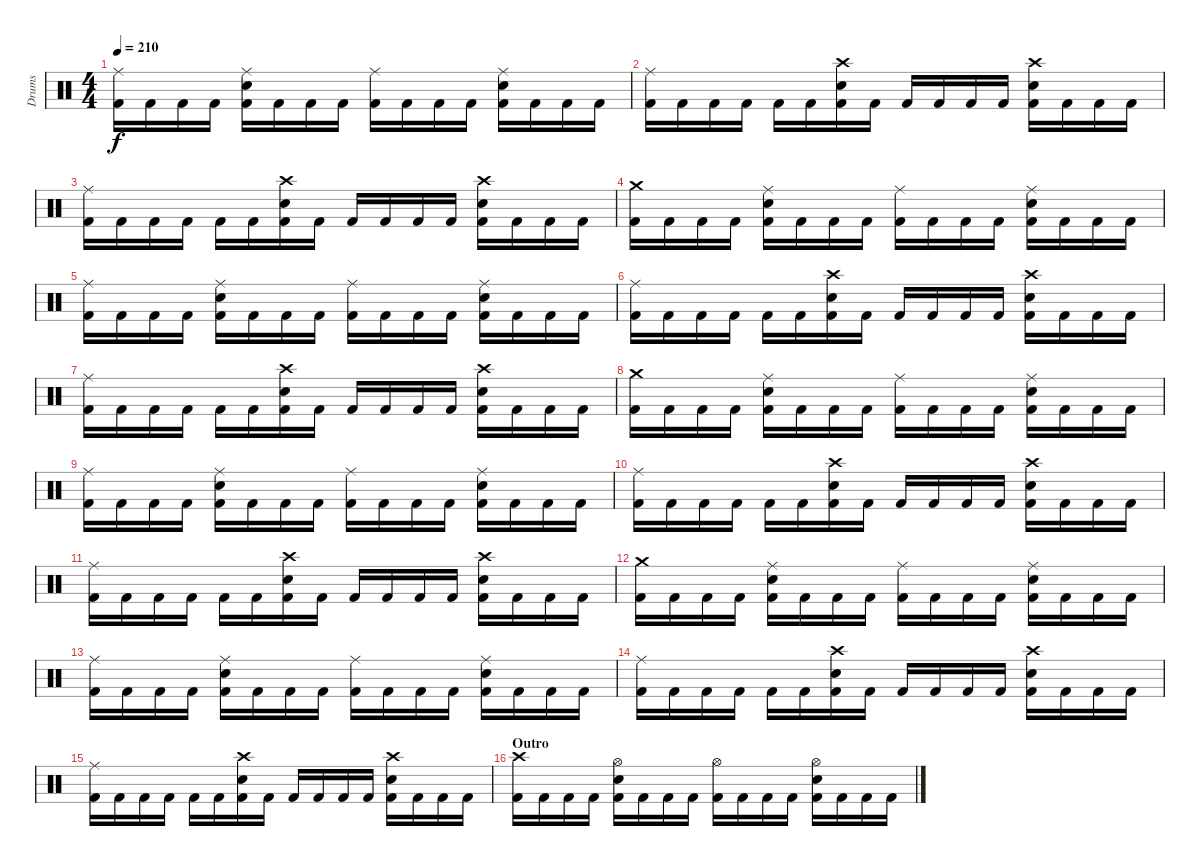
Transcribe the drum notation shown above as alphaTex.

\track ("Drums" "Drums") {instrument percussion}
\staff {score}
\articulation defaults
\ts (4 4)
\tempo 210
\clef neutral
\ks c
("Ride (middle)" "Kick (hit) 2").16{dy f} "Kick (hit) 2".16 "Kick (hit) 2".16 "Kick (hit) 2".16 ("Ride (middle)" "Snare (hit) 2" "Kick (hit) 2").16 "Kick (hit) 2".16 "Kick (hit) 2".16 "Kick (hit) 2".16 ("Ride (middle)" "Kick (hit) 2").16 "Kick (hit) 2".16 "Kick (hit) 2".16 "Kick (hit) 2".16 ("Ride (middle)" "Snare (hit) 2" "Kick (hit) 2").16 "Kick (hit) 2".16 "Kick (hit) 2".16 "Kick (hit) 2".16 |
("Ride (middle)" "Kick (hit) 2").16 "Kick (hit) 2".16 "Kick (hit) 2".16 "Kick (hit) 2".16 "Kick (hit) 2".16 "Kick (hit) 2".16 ("Crash high (hit)" "Snare (hit) 2" "Kick (hit) 2").16 "Kick (hit) 2".16 "Kick (hit) 2".16 "Kick (hit) 2".16 "Kick (hit) 2".16 "Kick (hit) 2".16 ("Crash high (hit)" "Snare (hit) 2" "Kick (hit) 2").16 "Kick (hit) 2".16 "Kick (hit) 2".16 "Kick (hit) 2".16 |
("Ride (middle)" "Kick (hit) 2").16 "Kick (hit) 2".16 "Kick (hit) 2".16 "Kick (hit) 2".16 "Kick (hit) 2".16 "Kick (hit) 2".16 ("Crash high (hit)" "Snare (hit) 2" "Kick (hit) 2").16 "Kick (hit) 2".16 "Kick (hit) 2".16 "Kick (hit) 2".16 "Kick (hit) 2".16 "Kick (hit) 2".16 ("Crash high (hit)" "Snare (hit) 2" "Kick (hit) 2").16 "Kick (hit) 2".16 "Kick (hit) 2".16 "Kick (hit) 2".16 |
("Crash medium (hit)" "Kick (hit) 2").16 "Kick (hit) 2".16 "Kick (hit) 2".16 "Kick (hit) 2".16 ("Ride (middle)" "Snare (hit) 2" "Kick (hit) 2").16 "Kick (hit) 2".16 "Kick (hit) 2".16 "Kick (hit) 2".16 ("Ride (middle)" "Kick (hit) 2").16 "Kick (hit) 2".16 "Kick (hit) 2".16 "Kick (hit) 2".16 ("Ride (middle)" "Snare (hit) 2" "Kick (hit) 2").16 "Kick (hit) 2".16 "Kick (hit) 2".16 "Kick (hit) 2".16 |
("Ride (middle)" "Kick (hit) 2").16 "Kick (hit) 2".16 "Kick (hit) 2".16 "Kick (hit) 2".16 ("Ride (middle)" "Snare (hit) 2" "Kick (hit) 2").16 "Kick (hit) 2".16 "Kick (hit) 2".16 "Kick (hit) 2".16 ("Ride (middle)" "Kick (hit) 2").16 "Kick (hit) 2".16 "Kick (hit) 2".16 "Kick (hit) 2".16 ("Ride (middle)" "Snare (hit) 2" "Kick (hit) 2").16 "Kick (hit) 2".16 "Kick (hit) 2".16 "Kick (hit) 2".16 |
("Ride (middle)" "Kick (hit) 2").16 "Kick (hit) 2".16 "Kick (hit) 2".16 "Kick (hit) 2".16 "Kick (hit) 2".16 "Kick (hit) 2".16 ("Crash high (hit)" "Snare (hit) 2" "Kick (hit) 2").16 "Kick (hit) 2".16 "Kick (hit) 2".16 "Kick (hit) 2".16 "Kick (hit) 2".16 "Kick (hit) 2".16 ("Crash high (hit)" "Snare (hit) 2" "Kick (hit) 2").16 "Kick (hit) 2".16 "Kick (hit) 2".16 "Kick (hit) 2".16 |
("Ride (middle)" "Kick (hit) 2").16 "Kick (hit) 2".16 "Kick (hit) 2".16 "Kick (hit) 2".16 "Kick (hit) 2".16 "Kick (hit) 2".16 ("Crash high (hit)" "Snare (hit) 2" "Kick (hit) 2").16 "Kick (hit) 2".16 "Kick (hit) 2".16 "Kick (hit) 2".16 "Kick (hit) 2".16 "Kick (hit) 2".16 ("Crash high (hit)" "Snare (hit) 2" "Kick (hit) 2").16 "Kick (hit) 2".16 "Kick (hit) 2".16 "Kick (hit) 2".16 |
("Crash medium (hit)" "Kick (hit) 2").16 "Kick (hit) 2".16 "Kick (hit) 2".16 "Kick (hit) 2".16 ("Ride (middle)" "Snare (hit) 2" "Kick (hit) 2").16 "Kick (hit) 2".16 "Kick (hit) 2".16 "Kick (hit) 2".16 ("Ride (middle)" "Kick (hit) 2").16 "Kick (hit) 2".16 "Kick (hit) 2".16 "Kick (hit) 2".16 ("Ride (middle)" "Snare (hit) 2" "Kick (hit) 2").16 "Kick (hit) 2".16 "Kick (hit) 2".16 "Kick (hit) 2".16 |
("Ride (middle)" "Kick (hit) 2").16 "Kick (hit) 2".16 "Kick (hit) 2".16 "Kick (hit) 2".16 ("Ride (middle)" "Snare (hit) 2" "Kick (hit) 2").16 "Kick (hit) 2".16 "Kick (hit) 2".16 "Kick (hit) 2".16 ("Ride (middle)" "Kick (hit) 2").16 "Kick (hit) 2".16 "Kick (hit) 2".16 "Kick (hit) 2".16 ("Ride (middle)" "Snare (hit) 2" "Kick (hit) 2").16 "Kick (hit) 2".16 "Kick (hit) 2".16 "Kick (hit) 2".16 |
("Ride (middle)" "Kick (hit) 2").16 "Kick (hit) 2".16 "Kick (hit) 2".16 "Kick (hit) 2".16 "Kick (hit) 2".16 "Kick (hit) 2".16 ("Crash high (hit)" "Snare (hit) 2" "Kick (hit) 2").16 "Kick (hit) 2".16 "Kick (hit) 2".16 "Kick (hit) 2".16 "Kick (hit) 2".16 "Kick (hit) 2".16 ("Crash high (hit)" "Snare (hit) 2" "Kick (hit) 2").16 "Kick (hit) 2".16 "Kick (hit) 2".16 "Kick (hit) 2".16 |
("Ride (middle)" "Kick (hit) 2").16 "Kick (hit) 2".16 "Kick (hit) 2".16 "Kick (hit) 2".16 "Kick (hit) 2".16 "Kick (hit) 2".16 ("Crash high (hit)" "Snare (hit) 2" "Kick (hit) 2").16 "Kick (hit) 2".16 "Kick (hit) 2".16 "Kick (hit) 2".16 "Kick (hit) 2".16 "Kick (hit) 2".16 ("Crash high (hit)" "Snare (hit) 2" "Kick (hit) 2").16 "Kick (hit) 2".16 "Kick (hit) 2".16 "Kick (hit) 2".16 |
("Crash medium (hit)" "Kick (hit) 2").16 "Kick (hit) 2".16 "Kick (hit) 2".16 "Kick (hit) 2".16 ("Ride (middle)" "Snare (hit) 2" "Kick (hit) 2").16 "Kick (hit) 2".16 "Kick (hit) 2".16 "Kick (hit) 2".16 ("Ride (middle)" "Kick (hit) 2").16 "Kick (hit) 2".16 "Kick (hit) 2".16 "Kick (hit) 2".16 ("Ride (middle)" "Snare (hit) 2" "Kick (hit) 2").16 "Kick (hit) 2".16 "Kick (hit) 2".16 "Kick (hit) 2".16 |
("Ride (middle)" "Kick (hit) 2").16 "Kick (hit) 2".16 "Kick (hit) 2".16 "Kick (hit) 2".16 ("Ride (middle)" "Snare (hit) 2" "Kick (hit) 2").16 "Kick (hit) 2".16 "Kick (hit) 2".16 "Kick (hit) 2".16 ("Ride (middle)" "Kick (hit) 2").16 "Kick (hit) 2".16 "Kick (hit) 2".16 "Kick (hit) 2".16 ("Ride (middle)" "Snare (hit) 2" "Kick (hit) 2").16 "Kick (hit) 2".16 "Kick (hit) 2".16 "Kick (hit) 2".16 |
("Ride (middle)" "Kick (hit) 2").16 "Kick (hit) 2".16 "Kick (hit) 2".16 "Kick (hit) 2".16 "Kick (hit) 2".16 "Kick (hit) 2".16 ("Crash high (hit)" "Snare (hit) 2" "Kick (hit) 2").16 "Kick (hit) 2".16 "Kick (hit) 2".16 "Kick (hit) 2".16 "Kick (hit) 2".16 "Kick (hit) 2".16 ("Crash high (hit)" "Snare (hit) 2" "Kick (hit) 2").16 "Kick (hit) 2".16 "Kick (hit) 2".16 "Kick (hit) 2".16 |
("Ride (middle)" "Kick (hit) 2").16 "Kick (hit) 2".16 "Kick (hit) 2".16 "Kick (hit) 2".16 "Kick (hit) 2".16 "Kick (hit) 2".16 ("Crash high (hit)" "Snare (hit) 2" "Kick (hit) 2").16 "Kick (hit) 2".16 "Kick (hit) 2".16 "Kick (hit) 2".16 "Kick (hit) 2".16 "Kick (hit) 2".16 ("Crash high (hit)" "Snare (hit) 2" "Kick (hit) 2").16 "Kick (hit) 2".16 "Kick (hit) 2".16 "Kick (hit) 2".16 |
\section ("" "Outro")
("Crash high (hit)" "Kick (hit) 2").16 "Kick (hit) 2".16 "Kick (hit) 2".16 "Kick (hit) 2".16 ("Hi-Hat (open)" "Snare (hit) 2" "Kick (hit) 2").16 "Kick (hit) 2".16 "Kick (hit) 2".16 "Kick (hit) 2".16 ("Hi-Hat (open)" "Kick (hit) 2").16 "Kick (hit) 2".16 "Kick (hit) 2".16 "Kick (hit) 2".16 ("Hi-Hat (open)" "Snare (hit) 2" "Kick (hit) 2").16 "Kick (hit) 2".16 "Kick (hit) 2".16 "Kick (hit) 2".16
